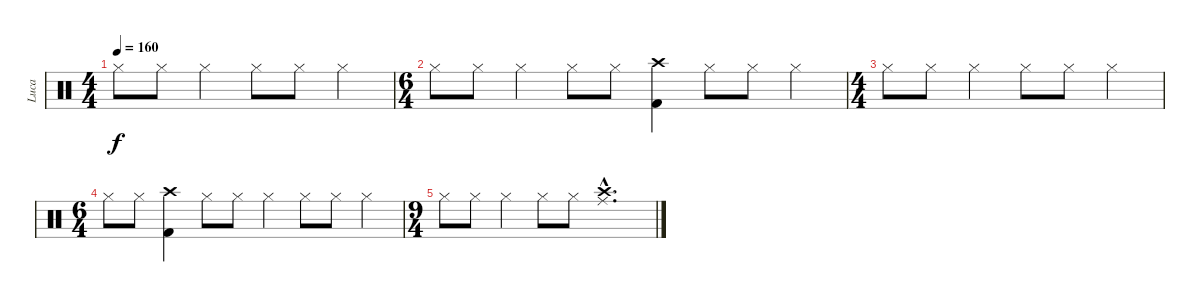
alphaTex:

\track ("Luca" "Luca") {instrument percussion}
\staff {score}
\articulation defaults
\ts (4 4)
\tempo 160
\clef neutral
\ks c "Hi-Hat (closed)".8{dy f} "Hi-Hat (closed)".8 "Hi-Hat (closed)".4 "Hi-Hat (closed)".8 "Hi-Hat (closed)".8 "Hi-Hat (closed)".4
|
\ts (6 4)
"Hi-Hat (closed)".8 "Hi-Hat (closed)".8 "Hi-Hat (closed)".4 "Hi-Hat (closed)".8 "Hi-Hat (closed)".8 ("Crash high (hit)" "Kick (hit) 2").4 "Hi-Hat (closed)".8 "Hi-Hat (closed)".8 "Hi-Hat (closed)".4 |
\ts (4 4)
"Hi-Hat (closed)".8 "Hi-Hat (closed)".8 "Hi-Hat (closed)".4 "Hi-Hat (closed)".8 "Hi-Hat (closed)".8 "Hi-Hat (closed)".4 |
\ts (6 4)
"Hi-Hat (closed)".8 "Hi-Hat (closed)".8 ("Crash high (hit)" "Kick (hit) 2").4 "Hi-Hat (closed)".8 "Hi-Hat (closed)".8 "Hi-Hat (closed)".4 "Hi-Hat (closed)".8 "Hi-Hat (closed)".8 "Hi-Hat (closed)".4 |
\ts (9 4)
"Hi-Hat (closed)".8 "Hi-Hat (closed)".8 "Hi-Hat (closed)".4 "Hi-Hat (closed)".8 "Hi-Hat (closed)".8 ("Crash high (hit)"{hac} "Ride (middle)"{hac}).1{d}
